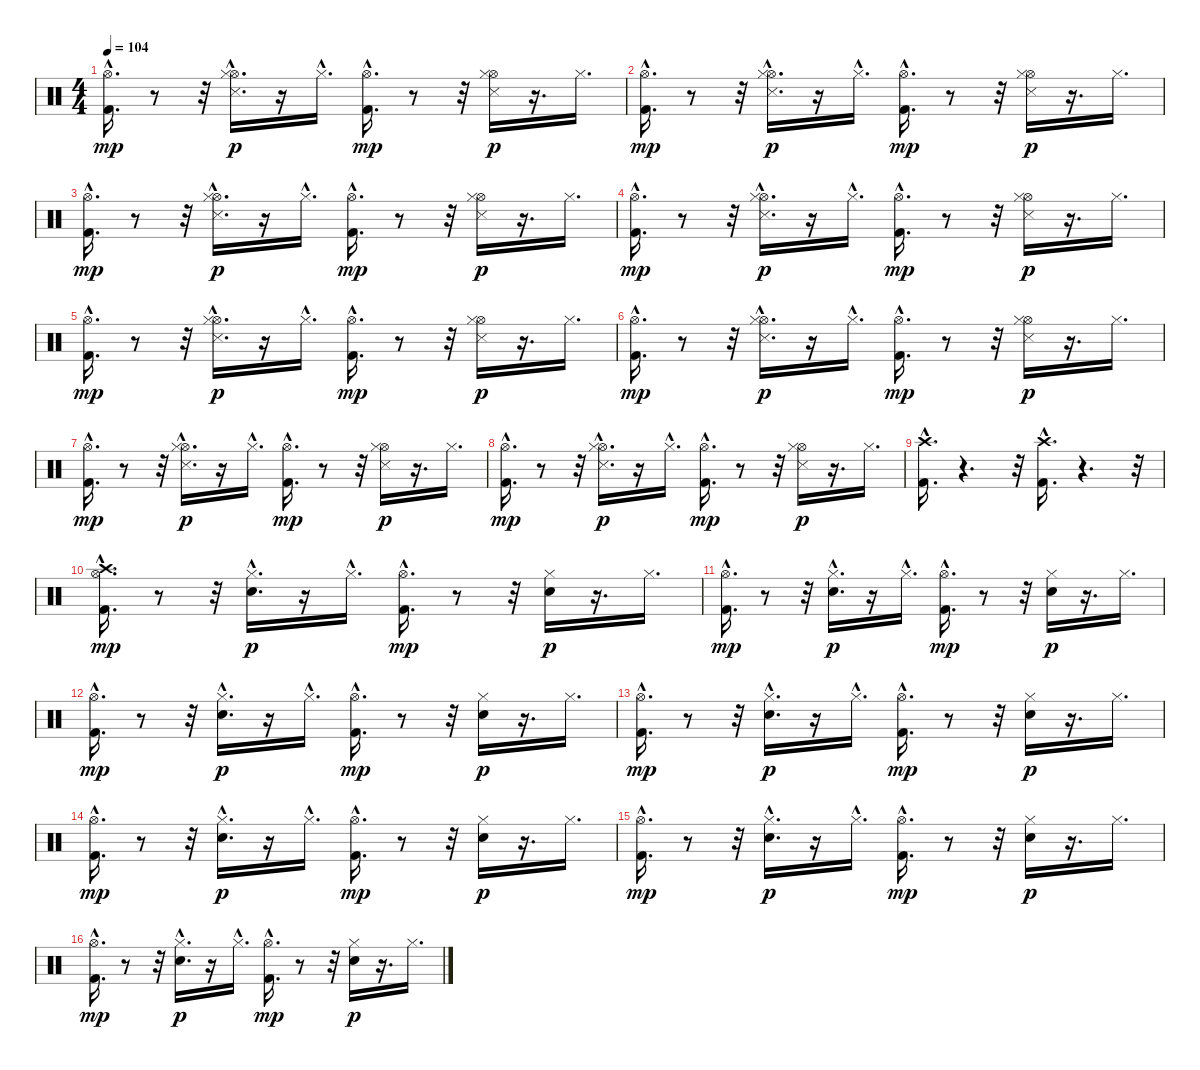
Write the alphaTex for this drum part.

\track "" {instrument percussion}
\staff {score}
\articulation defaults
\ts (4 4)
\tempo 104
\clef neutral
\ks c
("Hi-Hat (open)"{hac} "Kick (hit) 2"{hac}).16{d dy mp} r.8 r.32 ("Snare (side stick) 3"{hac} "Hi-Hat (open)"{hac} "Hi-Hat (closed)"{hac}).16{d dy p} r.16 "Hi-Hat (closed)"{hac}.16{d} ("Hi-Hat (open)"{hac} "Kick (hit) 2"{hac}).16{d dy mp} r.8 r.32 ("Snare (side stick) 3" "Hi-Hat (open)" "Hi-Hat (closed)").16{dy p} r.16{d} "Hi-Hat (closed)".16{d} |
("Hi-Hat (open)"{hac} "Kick (hit) 2"{hac}).16{d dy mp} r.8 r.32 ("Snare (side stick) 3"{hac} "Hi-Hat (open)"{hac} "Hi-Hat (closed)"{hac}).16{d dy p} r.16 "Hi-Hat (closed)"{hac}.16{d} ("Hi-Hat (open)"{hac} "Kick (hit) 2"{hac}).16{d dy mp} r.8 r.32 ("Snare (side stick) 3" "Hi-Hat (open)" "Hi-Hat (closed)").16{dy p} r.16{d} "Hi-Hat (closed)".16{d} |
("Hi-Hat (open)"{hac} "Kick (hit) 2"{hac}).16{d dy mp} r.8 r.32 ("Snare (side stick) 3"{hac} "Hi-Hat (open)"{hac} "Hi-Hat (closed)"{hac}).16{d dy p} r.16 "Hi-Hat (closed)"{hac}.16{d} ("Hi-Hat (open)"{hac} "Kick (hit) 2"{hac}).16{d dy mp} r.8 r.32 ("Snare (side stick) 3" "Hi-Hat (open)" "Hi-Hat (closed)").16{dy p} r.16{d} "Hi-Hat (closed)".16{d} |
("Hi-Hat (open)"{hac} "Kick (hit) 2"{hac}).16{d dy mp} r.8 r.32 ("Snare (side stick) 3"{hac} "Hi-Hat (open)"{hac} "Hi-Hat (closed)"{hac}).16{d dy p} r.16 "Hi-Hat (closed)"{hac}.16{d} ("Hi-Hat (open)"{hac} "Kick (hit) 2"{hac}).16{d dy mp} r.8 r.32 ("Snare (side stick) 3" "Hi-Hat (open)" "Hi-Hat (closed)").16{dy p} r.16{d} "Hi-Hat (closed)".16{d} |
("Hi-Hat (open)"{hac} "Kick (hit) 2"{hac}).16{d dy mp} r.8 r.32 ("Snare (side stick) 3"{hac} "Hi-Hat (open)"{hac} "Hi-Hat (closed)"{hac}).16{d dy p} r.16 "Hi-Hat (closed)"{hac}.16{d} ("Hi-Hat (open)"{hac} "Kick (hit) 2"{hac}).16{d dy mp} r.8 r.32 ("Snare (side stick) 3" "Hi-Hat (open)" "Hi-Hat (closed)").16{dy p} r.16{d} "Hi-Hat (closed)".16{d} |
("Hi-Hat (open)"{hac} "Kick (hit) 2"{hac}).16{d dy mp} r.8 r.32 ("Snare (side stick) 3"{hac} "Hi-Hat (open)"{hac} "Hi-Hat (closed)"{hac}).16{d dy p} r.16 "Hi-Hat (closed)"{hac}.16{d} ("Hi-Hat (open)"{hac} "Kick (hit) 2"{hac}).16{d dy mp} r.8 r.32 ("Snare (side stick) 3" "Hi-Hat (open)" "Hi-Hat (closed)").16{dy p} r.16{d} "Hi-Hat (closed)".16{d} |
("Hi-Hat (open)"{hac} "Kick (hit) 2"{hac}).16{d dy mp} r.8 r.32 ("Snare (side stick) 3"{hac} "Hi-Hat (open)"{hac} "Hi-Hat (closed)"{hac}).16{d dy p} r.16 "Hi-Hat (closed)"{hac}.16{d} ("Hi-Hat (open)"{hac} "Kick (hit) 2"{hac}).16{d dy mp} r.8 r.32 ("Snare (side stick) 3" "Hi-Hat (open)" "Hi-Hat (closed)").16{dy p} r.16{d} "Hi-Hat (closed)".16{d} |
("Hi-Hat (open)"{hac} "Kick (hit) 2"{hac}).16{d dy mp} r.8 r.32 ("Snare (side stick) 3"{hac} "Hi-Hat (open)"{hac} "Hi-Hat (closed)"{hac}).16{d dy p} r.16 "Hi-Hat (closed)"{hac}.16{d} ("Hi-Hat (open)"{hac} "Kick (hit) 2"{hac}).16{d dy mp} r.8 r.32 ("Snare (side stick) 3" "Hi-Hat (open)" "Hi-Hat (closed)").16{dy p} r.16{d} "Hi-Hat (closed)".16{d} |
("Kick (hit) 2"{hac} "Crash high (hit)"{hac}).16{d} r.4{d} r.32 ("Kick (hit) 2"{hac} "Crash high (hit)"{hac}).16{d} r.4{d} r.32 |
("Crash high (hit)"{hac} "Hi-Hat (open)"{hac} "Kick (hit) 2"{hac}).16{d dy mp} r.8 r.32 ("Hi-Hat (closed)"{hac} "Snare (hit) 2"{hac}).16{d dy p} r.16 "Hi-Hat (closed)"{hac}.16{d} ("Hi-Hat (open)"{hac} "Kick (hit) 2"{hac}).16{d dy mp} r.8 r.32 ("Hi-Hat (closed)" "Snare (hit) 2").16{dy p} r.16{d} "Hi-Hat (closed)".16{d} |
("Hi-Hat (open)"{hac} "Kick (hit) 2"{hac}).16{d dy mp} r.8 r.32 ("Hi-Hat (closed)"{hac} "Snare (hit) 2"{hac}).16{d dy p} r.16 "Hi-Hat (closed)"{hac}.16{d} ("Hi-Hat (open)"{hac} "Kick (hit) 2"{hac}).16{d dy mp} r.8 r.32 ("Hi-Hat (closed)" "Snare (hit) 2").16{dy p} r.16{d} "Hi-Hat (closed)".16{d} |
("Hi-Hat (open)"{hac} "Kick (hit) 2"{hac}).16{d dy mp} r.8 r.32 ("Hi-Hat (closed)"{hac} "Snare (hit) 2"{hac}).16{d dy p} r.16 "Hi-Hat (closed)"{hac}.16{d} ("Hi-Hat (open)"{hac} "Kick (hit) 2"{hac}).16{d dy mp} r.8 r.32 ("Hi-Hat (closed)" "Snare (hit) 2").16{dy p} r.16{d} "Hi-Hat (closed)".16{d} |
("Hi-Hat (open)"{hac} "Kick (hit) 2"{hac}).16{d dy mp} r.8 r.32 ("Hi-Hat (closed)"{hac} "Snare (hit) 2"{hac}).16{d dy p} r.16 "Hi-Hat (closed)"{hac}.16{d} ("Hi-Hat (open)"{hac} "Kick (hit) 2"{hac}).16{d dy mp} r.8 r.32 ("Hi-Hat (closed)" "Snare (hit) 2").16{dy p} r.16{d} "Hi-Hat (closed)".16{d} |
("Hi-Hat (open)"{hac} "Kick (hit) 2"{hac}).16{d dy mp} r.8 r.32 ("Hi-Hat (closed)"{hac} "Snare (hit) 2"{hac}).16{d dy p} r.16 "Hi-Hat (closed)"{hac}.16{d} ("Hi-Hat (open)"{hac} "Kick (hit) 2"{hac}).16{d dy mp} r.8 r.32 ("Hi-Hat (closed)" "Snare (hit) 2").16{dy p} r.16{d} "Hi-Hat (closed)".16{d} |
("Hi-Hat (open)"{hac} "Kick (hit) 2"{hac}).16{d dy mp} r.8 r.32 ("Hi-Hat (closed)"{hac} "Snare (hit) 2"{hac}).16{d dy p} r.16 "Hi-Hat (closed)"{hac}.16{d} ("Hi-Hat (open)"{hac} "Kick (hit) 2"{hac}).16{d dy mp} r.8 r.32 ("Hi-Hat (closed)" "Snare (hit) 2").16{dy p} r.16{d} "Hi-Hat (closed)".16{d} |
("Hi-Hat (open)"{hac} "Kick (hit) 2"{hac}).16{d dy mp} r.8 r.32 ("Hi-Hat (closed)"{hac} "Snare (hit) 2"{hac}).16{d dy p} r.16 "Hi-Hat (closed)"{hac}.16{d} ("Hi-Hat (open)"{hac} "Kick (hit) 2"{hac}).16{d dy mp} r.8 r.32 ("Hi-Hat (closed)" "Snare (hit) 2").16{dy p} r.16{d} "Hi-Hat (closed)".16{d}
